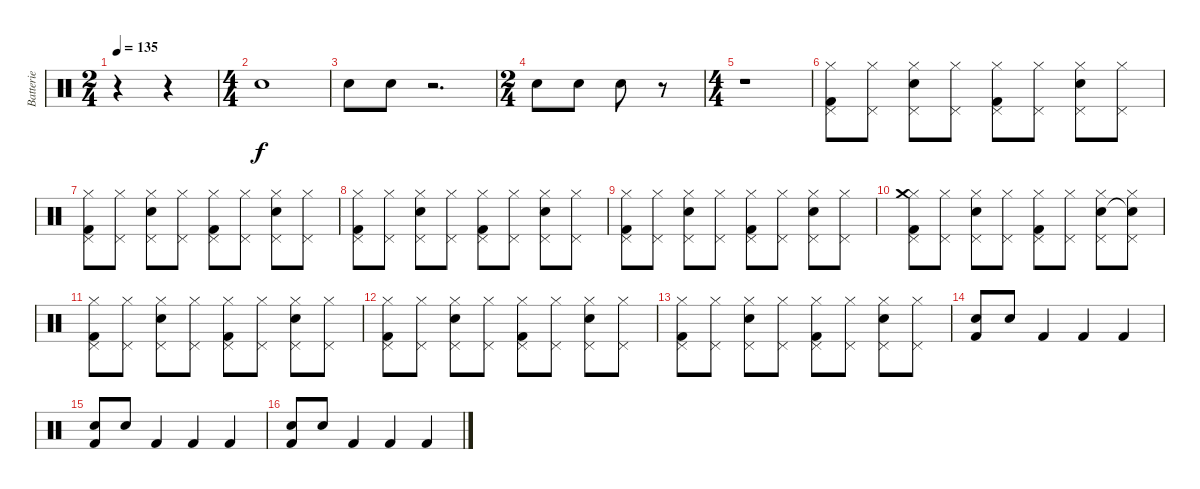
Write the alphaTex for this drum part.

\track ("Batterie" "Batterie") {instrument percussion}
\staff {score}
\articulation defaults
\ts (2 4)
\tempo 135
\clef neutral
\ks c
r.4{dy f} r.4 |
\ts (4 4)
"Electric Snare (hit)".1 |
"Electric Snare (hit)".8 "Electric Snare (hit)".8 r.2{d} |
\ts (2 4)
"Electric Snare (hit)".8 "Electric Snare (hit)".8 "Electric Snare (hit)".8 r.8 |
\ts (4 4)
r.1 |
("Hi-Hat (closed)" "Pedal Hi-Hat (hit)" "Kick (hit) 2").8 ("Hi-Hat (closed)" "Pedal Hi-Hat (hit)").8 ("Hi-Hat (closed)" "Pedal Hi-Hat (hit)" "Electric Snare (hit)").8 ("Hi-Hat (closed)" "Pedal Hi-Hat (hit)").8 ("Hi-Hat (closed)" "Pedal Hi-Hat (hit)" "Kick (hit) 2").8 ("Hi-Hat (closed)" "Pedal Hi-Hat (hit)").8 ("Hi-Hat (closed)" "Pedal Hi-Hat (hit)" "Electric Snare (hit)").8 ("Hi-Hat (closed)" "Pedal Hi-Hat (hit)").8 |
("Hi-Hat (closed)" "Pedal Hi-Hat (hit)" "Kick (hit) 2").8 ("Hi-Hat (closed)" "Pedal Hi-Hat (hit)").8 ("Hi-Hat (closed)" "Pedal Hi-Hat (hit)" "Electric Snare (hit)").8 ("Hi-Hat (closed)" "Pedal Hi-Hat (hit)").8 ("Hi-Hat (closed)" "Pedal Hi-Hat (hit)" "Kick (hit) 2").8 ("Hi-Hat (closed)" "Pedal Hi-Hat (hit)").8 ("Hi-Hat (closed)" "Pedal Hi-Hat (hit)" "Electric Snare (hit)").8 ("Hi-Hat (closed)" "Pedal Hi-Hat (hit)").8 |
("Hi-Hat (closed)" "Pedal Hi-Hat (hit)" "Kick (hit) 2").8 ("Hi-Hat (closed)" "Pedal Hi-Hat (hit)").8 ("Hi-Hat (closed)" "Pedal Hi-Hat (hit)" "Electric Snare (hit)").8 ("Hi-Hat (closed)" "Pedal Hi-Hat (hit)").8 ("Hi-Hat (closed)" "Pedal Hi-Hat (hit)" "Kick (hit) 2").8 ("Hi-Hat (closed)" "Pedal Hi-Hat (hit)").8 ("Hi-Hat (closed)" "Pedal Hi-Hat (hit)" "Electric Snare (hit)").8 ("Hi-Hat (closed)" "Pedal Hi-Hat (hit)").8 |
("Hi-Hat (closed)" "Pedal Hi-Hat (hit)" "Kick (hit) 2").8 ("Hi-Hat (closed)" "Pedal Hi-Hat (hit)").8 ("Hi-Hat (closed)" "Pedal Hi-Hat (hit)" "Electric Snare (hit)").8 ("Hi-Hat (closed)" "Pedal Hi-Hat (hit)").8 ("Hi-Hat (closed)" "Pedal Hi-Hat (hit)" "Kick (hit) 2").8 ("Hi-Hat (closed)" "Pedal Hi-Hat (hit)").8 ("Hi-Hat (closed)" "Pedal Hi-Hat (hit)" "Electric Snare (hit)").8 ("Hi-Hat (closed)" "Pedal Hi-Hat (hit)").8 |
("Hi-Hat (closed)" "Pedal Hi-Hat (hit)" "Crash medium (hit)" "Kick (hit) 2").8 ("Hi-Hat (closed)" "Pedal Hi-Hat (hit)").8 ("Hi-Hat (closed)" "Pedal Hi-Hat (hit)" "Electric Snare (hit)").8 ("Hi-Hat (closed)" "Pedal Hi-Hat (hit)").8 ("Hi-Hat (closed)" "Pedal Hi-Hat (hit)" "Kick (hit) 2").8 ("Hi-Hat (closed)" "Pedal Hi-Hat (hit)").8 ("Hi-Hat (closed)" "Pedal Hi-Hat (hit)" "Electric Snare (hit)").8 ("Hi-Hat (closed)" "Pedal Hi-Hat (hit)" "Snare (hit)"{t}).8 |
("Hi-Hat (closed)" "Pedal Hi-Hat (hit)" "Kick (hit) 2").8 ("Hi-Hat (closed)" "Pedal Hi-Hat (hit)").8 ("Hi-Hat (closed)" "Pedal Hi-Hat (hit)" "Electric Snare (hit)").8 ("Hi-Hat (closed)" "Pedal Hi-Hat (hit)").8 ("Hi-Hat (closed)" "Pedal Hi-Hat (hit)" "Kick (hit) 2").8 ("Hi-Hat (closed)" "Pedal Hi-Hat (hit)").8 ("Hi-Hat (closed)" "Pedal Hi-Hat (hit)" "Electric Snare (hit)").8 ("Hi-Hat (closed)" "Pedal Hi-Hat (hit)").8 |
("Hi-Hat (closed)" "Pedal Hi-Hat (hit)" "Kick (hit) 2").8 ("Hi-Hat (closed)" "Pedal Hi-Hat (hit)").8 ("Hi-Hat (closed)" "Pedal Hi-Hat (hit)" "Electric Snare (hit)").8 ("Hi-Hat (closed)" "Pedal Hi-Hat (hit)").8 ("Hi-Hat (closed)" "Pedal Hi-Hat (hit)" "Kick (hit) 2").8 ("Hi-Hat (closed)" "Pedal Hi-Hat (hit)").8 ("Hi-Hat (closed)" "Pedal Hi-Hat (hit)" "Electric Snare (hit)").8 ("Hi-Hat (closed)" "Pedal Hi-Hat (hit)").8 |
("Hi-Hat (closed)" "Pedal Hi-Hat (hit)" "Kick (hit) 2").8 ("Hi-Hat (closed)" "Pedal Hi-Hat (hit)").8 ("Hi-Hat (closed)" "Pedal Hi-Hat (hit)" "Electric Snare (hit)").8 ("Hi-Hat (closed)" "Pedal Hi-Hat (hit)").8 ("Hi-Hat (closed)" "Pedal Hi-Hat (hit)" "Kick (hit) 2").8 ("Hi-Hat (closed)" "Pedal Hi-Hat (hit)").8 ("Hi-Hat (closed)" "Pedal Hi-Hat (hit)" "Electric Snare (hit)").8 ("Hi-Hat (closed)" "Pedal Hi-Hat (hit)").8 |
("Electric Snare (hit)" "Kick (hit) 2").8 "Electric Snare (hit)".8 "Kick (hit) 2".4 "Kick (hit) 2".4 "Kick (hit) 2".4 |
("Electric Snare (hit)" "Kick (hit) 2").8 "Electric Snare (hit)".8 "Kick (hit) 2".4 "Kick (hit) 2".4 "Kick (hit) 2".4 |
("Electric Snare (hit)" "Kick (hit) 2").8 "Electric Snare (hit)".8 "Kick (hit) 2".4 "Kick (hit) 2".4 "Kick (hit) 2".4
